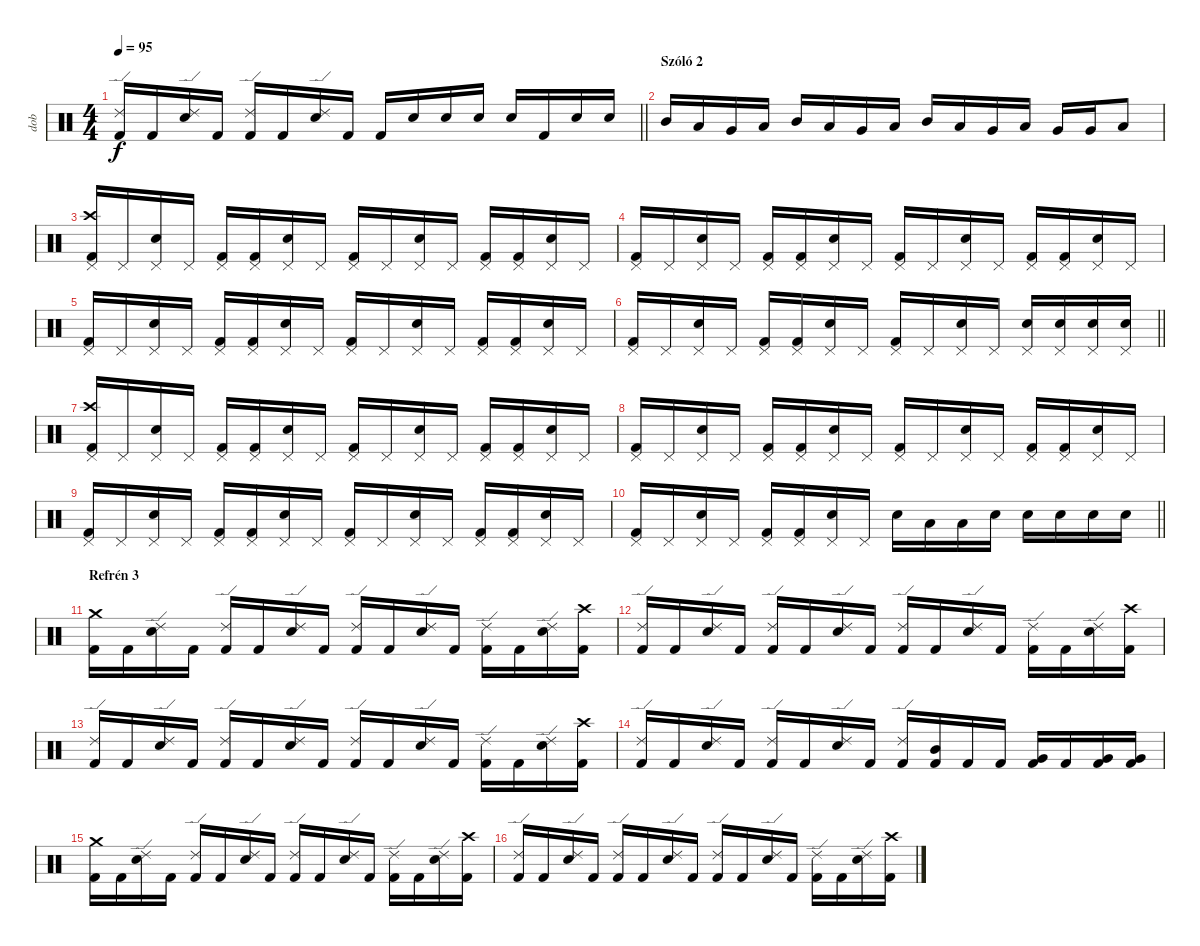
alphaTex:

\track ("dob" "dob") {instrument percussion}
\staff {score}
\articulation defaults
\ts (4 4)
\tempo 95
\clef neutral
\barLineRight lightlight
\ks c
("Ride (edge) 2" "Kick (hit) 2").16{dy f} "Kick (hit) 2".16 ("Ride (edge) 2" "Electric Snare (hit)").16 "Kick (hit) 2".16 ("Ride (edge) 2" "Kick (hit) 2").16 "Kick (hit) 2".16 ("Ride (edge) 2" "Electric Snare (hit)").16 "Kick (hit) 2".16 "Kick (hit) 2".16 "Electric Snare (hit)".16 "Electric Snare (hit)".16 "Electric Snare (hit)".16 "Electric Snare (hit)".16 "Kick (hit) 2".16 "Electric Snare (hit)".16 "Electric Snare (hit)".16 |
\section ("" "Szóló 2")
"Mid Tom (hit)".16 "Low Tom (hit)".16 "Very Low Tom (hit)".16 "Low Floor Tom (hit)".16 "Mid Tom (hit)".16 "Low Tom (hit)".16 "Very Low Tom (hit)".16 "Low Floor Tom (hit)".16 "Mid Tom (hit)".16 "Low Tom (hit)".16 "Very Low Tom (hit)".16 "Low Floor Tom (hit)".16 "Very Low Tom (hit)".16 "Very Low Tom (hit)".16 "Low Floor Tom (hit)".8 |
("Crash high (hit)" "Pedal Hi-Hat (hit)" "Kick (hit) 2").16 "Pedal Hi-Hat (hit)".16 ("Pedal Hi-Hat (hit)" "Electric Snare (hit)").16 "Pedal Hi-Hat (hit)".16 ("Pedal Hi-Hat (hit)" "Kick (hit) 2").16 ("Pedal Hi-Hat (hit)" "Kick (hit) 2").16 ("Pedal Hi-Hat (hit)" "Electric Snare (hit)").16 "Pedal Hi-Hat (hit)".16 ("Pedal Hi-Hat (hit)" "Kick (hit) 2").16 "Pedal Hi-Hat (hit)".16 ("Pedal Hi-Hat (hit)" "Electric Snare (hit)").16 "Pedal Hi-Hat (hit)".16 ("Pedal Hi-Hat (hit)" "Kick (hit) 2").16 ("Pedal Hi-Hat (hit)" "Kick (hit) 2").16 ("Pedal Hi-Hat (hit)" "Electric Snare (hit)").16 "Pedal Hi-Hat (hit)".16 |
("Pedal Hi-Hat (hit)" "Kick (hit) 2").16 "Pedal Hi-Hat (hit)".16 ("Pedal Hi-Hat (hit)" "Electric Snare (hit)").16 "Pedal Hi-Hat (hit)".16 ("Pedal Hi-Hat (hit)" "Kick (hit) 2").16 ("Pedal Hi-Hat (hit)" "Kick (hit) 2").16 ("Pedal Hi-Hat (hit)" "Electric Snare (hit)").16 "Pedal Hi-Hat (hit)".16 ("Pedal Hi-Hat (hit)" "Kick (hit) 2").16 "Pedal Hi-Hat (hit)".16 ("Pedal Hi-Hat (hit)" "Electric Snare (hit)").16 "Pedal Hi-Hat (hit)".16 ("Pedal Hi-Hat (hit)" "Kick (hit) 2").16 ("Pedal Hi-Hat (hit)" "Kick (hit) 2").16 ("Pedal Hi-Hat (hit)" "Electric Snare (hit)").16 "Pedal Hi-Hat (hit)".16 |
("Pedal Hi-Hat (hit)" "Kick (hit) 2").16 "Pedal Hi-Hat (hit)".16 ("Pedal Hi-Hat (hit)" "Electric Snare (hit)").16 "Pedal Hi-Hat (hit)".16 ("Pedal Hi-Hat (hit)" "Kick (hit) 2").16 ("Pedal Hi-Hat (hit)" "Kick (hit) 2").16 ("Pedal Hi-Hat (hit)" "Electric Snare (hit)").16 "Pedal Hi-Hat (hit)".16 ("Pedal Hi-Hat (hit)" "Kick (hit) 2").16 "Pedal Hi-Hat (hit)".16 ("Pedal Hi-Hat (hit)" "Electric Snare (hit)").16 "Pedal Hi-Hat (hit)".16 ("Pedal Hi-Hat (hit)" "Kick (hit) 2").16 ("Pedal Hi-Hat (hit)" "Kick (hit) 2").16 ("Pedal Hi-Hat (hit)" "Electric Snare (hit)").16 "Pedal Hi-Hat (hit)".16 |
\barLineRight lightlight
("Pedal Hi-Hat (hit)" "Kick (hit) 2").16 "Pedal Hi-Hat (hit)".16 ("Pedal Hi-Hat (hit)" "Electric Snare (hit)").16 "Pedal Hi-Hat (hit)".16 ("Pedal Hi-Hat (hit)" "Kick (hit) 2").16 ("Pedal Hi-Hat (hit)" "Kick (hit) 2").16 ("Pedal Hi-Hat (hit)" "Electric Snare (hit)").16 "Pedal Hi-Hat (hit)".16 ("Pedal Hi-Hat (hit)" "Kick (hit) 2").16 "Pedal Hi-Hat (hit)".16 ("Pedal Hi-Hat (hit)" "Electric Snare (hit)").16 "Pedal Hi-Hat (hit)".16 ("Pedal Hi-Hat (hit)" "Electric Snare (hit)").16 ("Pedal Hi-Hat (hit)" "Electric Snare (hit)").16 ("Pedal Hi-Hat (hit)" "Electric Snare (hit)").16 ("Pedal Hi-Hat (hit)" "Electric Snare (hit)").16 |
("Crash high (hit)" "Pedal Hi-Hat (hit)" "Kick (hit) 2").16 "Pedal Hi-Hat (hit)".16 ("Pedal Hi-Hat (hit)" "Electric Snare (hit)").16 "Pedal Hi-Hat (hit)".16 ("Pedal Hi-Hat (hit)" "Kick (hit) 2").16 ("Pedal Hi-Hat (hit)" "Kick (hit) 2").16 ("Pedal Hi-Hat (hit)" "Electric Snare (hit)").16 "Pedal Hi-Hat (hit)".16 ("Pedal Hi-Hat (hit)" "Kick (hit) 2").16 "Pedal Hi-Hat (hit)".16 ("Pedal Hi-Hat (hit)" "Electric Snare (hit)").16 "Pedal Hi-Hat (hit)".16 ("Pedal Hi-Hat (hit)" "Kick (hit) 2").16 ("Pedal Hi-Hat (hit)" "Kick (hit) 2").16 ("Pedal Hi-Hat (hit)" "Electric Snare (hit)").16 "Pedal Hi-Hat (hit)".16 |
("Pedal Hi-Hat (hit)" "Kick (hit) 2").16 "Pedal Hi-Hat (hit)".16 ("Pedal Hi-Hat (hit)" "Electric Snare (hit)").16 "Pedal Hi-Hat (hit)".16 ("Pedal Hi-Hat (hit)" "Kick (hit) 2").16 ("Pedal Hi-Hat (hit)" "Kick (hit) 2").16 ("Pedal Hi-Hat (hit)" "Electric Snare (hit)").16 "Pedal Hi-Hat (hit)".16 ("Pedal Hi-Hat (hit)" "Kick (hit) 2").16 "Pedal Hi-Hat (hit)".16 ("Pedal Hi-Hat (hit)" "Electric Snare (hit)").16 "Pedal Hi-Hat (hit)".16 ("Pedal Hi-Hat (hit)" "Kick (hit) 2").16 ("Pedal Hi-Hat (hit)" "Kick (hit) 2").16 ("Pedal Hi-Hat (hit)" "Electric Snare (hit)").16 "Pedal Hi-Hat (hit)".16 |
("Pedal Hi-Hat (hit)" "Kick (hit) 2").16 "Pedal Hi-Hat (hit)".16 ("Pedal Hi-Hat (hit)" "Electric Snare (hit)").16 "Pedal Hi-Hat (hit)".16 ("Pedal Hi-Hat (hit)" "Kick (hit) 2").16 ("Pedal Hi-Hat (hit)" "Kick (hit) 2").16 ("Pedal Hi-Hat (hit)" "Electric Snare (hit)").16 "Pedal Hi-Hat (hit)".16 ("Pedal Hi-Hat (hit)" "Kick (hit) 2").16 "Pedal Hi-Hat (hit)".16 ("Pedal Hi-Hat (hit)" "Electric Snare (hit)").16 "Pedal Hi-Hat (hit)".16 ("Pedal Hi-Hat (hit)" "Kick (hit) 2").16 ("Pedal Hi-Hat (hit)" "Kick (hit) 2").16 ("Pedal Hi-Hat (hit)" "Electric Snare (hit)").16 "Pedal Hi-Hat (hit)".16 |
\barLineRight lightlight
("Pedal Hi-Hat (hit)" "Kick (hit) 2").16 "Pedal Hi-Hat (hit)".16 ("Pedal Hi-Hat (hit)" "Electric Snare (hit)").16 "Pedal Hi-Hat (hit)".16 ("Pedal Hi-Hat (hit)" "Kick (hit) 2").16 ("Pedal Hi-Hat (hit)" "Kick (hit) 2").16 ("Pedal Hi-Hat (hit)" "Electric Snare (hit)").16 "Pedal Hi-Hat (hit)".16 "Electric Snare (hit)".16 "Low Tom (hit)".16 "Low Tom (hit)".16 "Electric Snare (hit)".16 "Electric Snare (hit)".16 "Electric Snare (hit)".16 "Electric Snare (hit)".16 "Electric Snare (hit)".16 |
\section ("" "Refrén 3")
("Crash medium (hit)" "Kick (hit) 2").16 "Kick (hit) 2".16 ("Ride (edge) 2" "Electric Snare (hit)").16 "Kick (hit) 2".16 ("Ride (edge) 2" "Kick (hit) 2").16 "Kick (hit) 2".16 ("Ride (edge) 2" "Electric Snare (hit)").16 "Kick (hit) 2".16 ("Ride (edge) 2" "Kick (hit) 2").16 "Kick (hit) 2".16 ("Ride (edge) 2" "Electric Snare (hit)").16 "Kick (hit) 2".16 ("Ride (edge) 2" "Kick (hit) 2").16 "Kick (hit) 2".16 ("Ride (edge) 2" "Electric Snare (hit)").16 ("Crash high (hit)" "Kick (hit) 2").16 |
("Ride (edge) 2" "Kick (hit) 2").16 "Kick (hit) 2".16 ("Ride (edge) 2" "Electric Snare (hit)").16 "Kick (hit) 2".16 ("Ride (edge) 2" "Kick (hit) 2").16 "Kick (hit) 2".16 ("Ride (edge) 2" "Electric Snare (hit)").16 "Kick (hit) 2".16 ("Ride (edge) 2" "Kick (hit) 2").16 "Kick (hit) 2".16 ("Ride (edge) 2" "Electric Snare (hit)").16 "Kick (hit) 2".16 ("Ride (edge) 2" "Kick (hit) 2").16 "Kick (hit) 2".16 ("Ride (edge) 2" "Electric Snare (hit)").16 ("Crash high (hit)" "Kick (hit) 2").16 |
("Ride (edge) 2" "Kick (hit) 2").16 "Kick (hit) 2".16 ("Ride (edge) 2" "Electric Snare (hit)").16 "Kick (hit) 2".16 ("Ride (edge) 2" "Kick (hit) 2").16 "Kick (hit) 2".16 ("Ride (edge) 2" "Electric Snare (hit)").16 "Kick (hit) 2".16 ("Ride (edge) 2" "Kick (hit) 2").16 "Kick (hit) 2".16 ("Ride (edge) 2" "Electric Snare (hit)").16 "Kick (hit) 2".16 ("Ride (edge) 2" "Kick (hit) 2").16 "Kick (hit) 2".16 ("Ride (edge) 2" "Electric Snare (hit)").16 ("Crash high (hit)" "Kick (hit) 2").16 |
("Ride (edge) 2" "Kick (hit) 2").16 "Kick (hit) 2".16 ("Ride (edge) 2" "Electric Snare (hit)").16 "Kick (hit) 2".16 ("Ride (edge) 2" "Kick (hit) 2").16 "Kick (hit) 2".16 ("Ride (edge) 2" "Electric Snare (hit)").16 "Kick (hit) 2".16 ("Ride (edge) 2" "Kick (hit) 2").16 ("Mid Tom (hit)" "Kick (hit) 2").16 "Kick (hit) 2".16 "Kick (hit) 2".16 ("Very Low Tom (hit)" "Kick (hit) 2").16 "Kick (hit) 2".16 ("Very Low Tom (hit)" "Kick (hit) 2").16 ("Very Low Tom (hit)" "Kick (hit) 2").16 |
("Crash medium (hit)" "Kick (hit) 2").16 "Kick (hit) 2".16 ("Ride (edge) 2" "Electric Snare (hit)").16 "Kick (hit) 2".16 ("Ride (edge) 2" "Kick (hit) 2").16 "Kick (hit) 2".16 ("Ride (edge) 2" "Electric Snare (hit)").16 "Kick (hit) 2".16 ("Ride (edge) 2" "Kick (hit) 2").16 "Kick (hit) 2".16 ("Ride (edge) 2" "Electric Snare (hit)").16 "Kick (hit) 2".16 ("Ride (edge) 2" "Kick (hit) 2").16 "Kick (hit) 2".16 ("Ride (edge) 2" "Electric Snare (hit)").16 ("Crash high (hit)" "Kick (hit) 2").16 |
("Ride (edge) 2" "Kick (hit) 2").16 "Kick (hit) 2".16 ("Ride (edge) 2" "Electric Snare (hit)").16 "Kick (hit) 2".16 ("Ride (edge) 2" "Kick (hit) 2").16 "Kick (hit) 2".16 ("Ride (edge) 2" "Electric Snare (hit)").16 "Kick (hit) 2".16 ("Ride (edge) 2" "Kick (hit) 2").16 "Kick (hit) 2".16 ("Ride (edge) 2" "Electric Snare (hit)").16 "Kick (hit) 2".16 ("Ride (edge) 2" "Kick (hit) 2").16 "Kick (hit) 2".16 ("Ride (edge) 2" "Electric Snare (hit)").16 ("Crash high (hit)" "Kick (hit) 2").16
